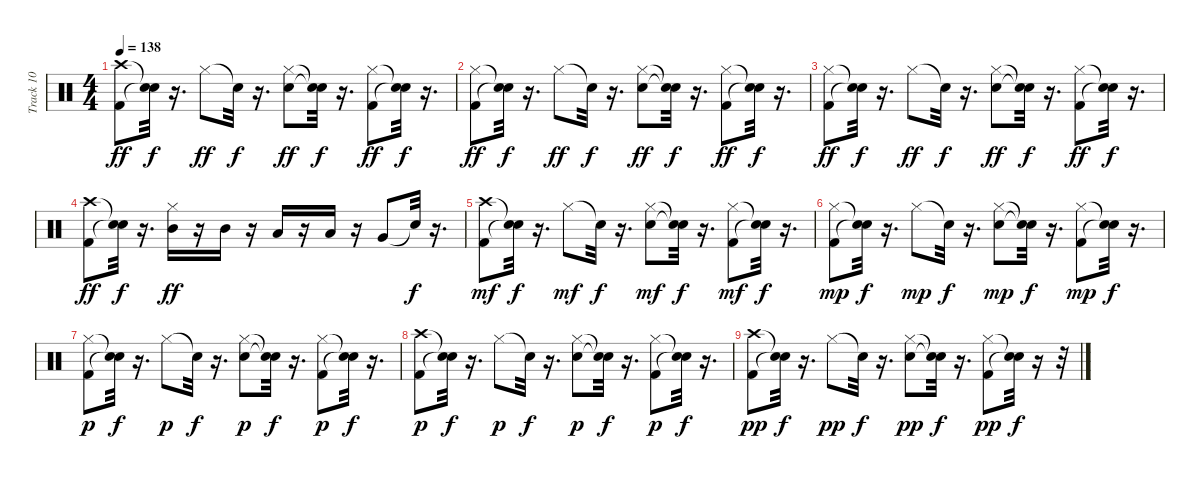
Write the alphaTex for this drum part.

\track ("Track 10" "Track 10") {instrument percussion}
\staff {score}
\articulation defaults
\ts (4 4)
\tempo 138
\clef neutral
\ks c
("Crash high (hit)" "Kick (hit) 2").8{dy ff} ("Snare (hit)"{t} "Snare (hit)"{t}).32{dy f} r.16{d} "Hi-Hat (closed)".8{dy ff} "Snare (hit)"{t}.32{dy f} r.16{d} ("Snare (hit) 2" "Hi-Hat (closed)").8{dy ff} ("Snare (hit)"{t} "Snare (hit)"{t}).32{dy f} r.16{d} ("Hi-Hat (closed)" "Kick (hit) 2").8{dy ff} ("Snare (hit)"{t} "Snare (hit)"{t}).32{dy f} r.16{d} |
("Hi-Hat (closed)" "Kick (hit) 2").8{dy ff} ("Snare (hit)"{t} "Snare (hit)"{t}).32{dy f} r.16{d} "Hi-Hat (closed)".8{dy ff} "Snare (hit)"{t}.32{dy f} r.16{d} ("Snare (hit) 2" "Hi-Hat (closed)").8{dy ff} ("Snare (hit)"{t} "Snare (hit)"{t}).32{dy f} r.16{d} ("Hi-Hat (closed)" "Kick (hit) 2").8{dy ff} ("Snare (hit)"{t} "Snare (hit)"{t}).32{dy f} r.16{d} |
("Hi-Hat (closed)" "Kick (hit) 2").8{dy ff} ("Snare (hit)"{t} "Snare (hit)"{t}).32{dy f} r.16{d} "Hi-Hat (closed)".8{dy ff} "Snare (hit)"{t}.32{dy f} r.16{d} ("Snare (hit) 2" "Hi-Hat (closed)").8{dy ff} ("Snare (hit)"{t} "Snare (hit)"{t}).32{dy f} r.16{d} ("Hi-Hat (closed)" "Kick (hit) 2").8{dy ff} ("Snare (hit)"{t} "Snare (hit)"{t}).32{dy f} r.16{d} |
("Crash high (hit)" "Kick (hit) 2").8{dy ff} ("Snare (hit)"{t} "Snare (hit)"{t}).32{dy f} r.16{d} ("Mid Tom (hit)" "Hi-Hat (closed)").16{dy ff} r.16 "Mid Tom (hit)".16 r.16 "Low Tom (hit)".16 r.16 "Low Tom (hit)".16 r.16 "Very Low Tom (hit)".8 "Snare (hit)"{t}.32{dy f} r.16{d} |
("Crash high (hit)" "Kick (hit) 2").8{dy mf} ("Snare (hit)"{t} "Snare (hit)"{t}).32{dy f} r.16{d} "Hi-Hat (closed)".8{dy mf} "Snare (hit)"{t}.32{dy f} r.16{d} ("Snare (hit) 2" "Hi-Hat (closed)").8{dy mf} ("Snare (hit)"{t} "Snare (hit)"{t}).32{dy f} r.16{d} ("Hi-Hat (closed)" "Kick (hit) 2").8{dy mf} ("Snare (hit)"{t} "Snare (hit)"{t}).32{dy f} r.16{d} |
("Hi-Hat (closed)" "Kick (hit) 2").8{dy mp} ("Snare (hit)"{t} "Snare (hit)"{t}).32{dy f} r.16{d} "Hi-Hat (closed)".8{dy mp} "Snare (hit)"{t}.32{dy f} r.16{d} ("Snare (hit) 2" "Hi-Hat (closed)").8{dy mp} ("Snare (hit)"{t} "Snare (hit)"{t}).32{dy f} r.16{d} ("Hi-Hat (closed)" "Kick (hit) 2").8{dy mp} ("Snare (hit)"{t} "Snare (hit)"{t}).32{dy f} r.16{d} |
("Hi-Hat (closed)" "Kick (hit) 2").8{dy p} ("Snare (hit)"{t} "Snare (hit)"{t}).32{dy f} r.16{d} "Hi-Hat (closed)".8{dy p} "Snare (hit)"{t}.32{dy f} r.16{d} ("Snare (hit) 2" "Hi-Hat (closed)").8{dy p} ("Snare (hit)"{t} "Snare (hit)"{t}).32{dy f} r.16{d} ("Hi-Hat (closed)" "Kick (hit) 2").8{dy p} ("Snare (hit)"{t} "Snare (hit)"{t}).32{dy f} r.16{d} |
("Crash high (hit)" "Kick (hit) 2").8{dy p} ("Snare (hit)"{t} "Snare (hit)"{t}).32{dy f} r.16{d} "Hi-Hat (closed)".8{dy p} "Snare (hit)"{t}.32{dy f} r.16{d} ("Snare (hit) 2" "Hi-Hat (closed)").8{dy p} ("Snare (hit)"{t} "Snare (hit)"{t}).32{dy f} r.16{d} ("Hi-Hat (closed)" "Kick (hit) 2").8{dy p} ("Snare (hit)"{t} "Snare (hit)"{t}).32{dy f} r.16{d} |
("Crash high (hit)" "Kick (hit) 2").8{dy pp} ("Snare (hit)"{t} "Snare (hit)"{t}).32{dy f} r.16{d} "Hi-Hat (closed)".8{dy pp} "Snare (hit)"{t}.32{dy f} r.16{d} ("Snare (hit) 2" "Hi-Hat (closed)").8{dy pp} ("Snare (hit)"{t} "Snare (hit)"{t}).32{dy f} r.16{d} ("Hi-Hat (closed)" "Kick (hit) 2").8{dy pp} ("Snare (hit)"{t} "Snare (hit)"{t}).32{dy f} r.16 r.32
